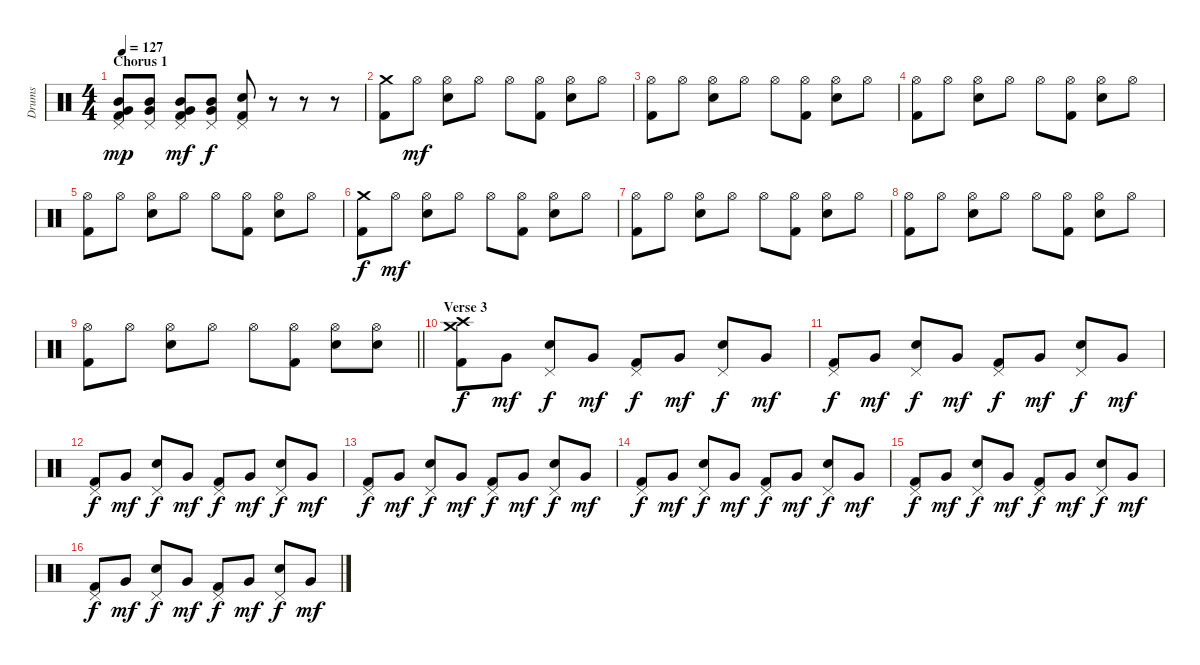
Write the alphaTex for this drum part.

\track ("Drums" "Drums") {instrument percussion}
\staff {score}
\articulation defaults
\ts (4 4)
\section ("" "Chorus 1")
\tempo 127
\clef neutral
\ks c
("Pedal Hi-Hat (hit)" "Mid Tom (hit)" "Very Low Tom (hit)" "Kick (hit) 2").8{dy mp} ("Pedal Hi-Hat (hit)" "Mid Tom (hit)" "Very Low Tom (hit)").8 ("Pedal Hi-Hat (hit)" "Mid Tom (hit)" "Very Low Tom (hit)" "Kick (hit) 2").8{dy mf} ("Pedal Hi-Hat (hit)" "Mid Tom (hit)" "Very Low Tom (hit)").8{dy f} ("Pedal Hi-Hat (hit)" "Snare (hit) 2" "Kick (hit) 2").8 r.8 r.8 r.8 |
("Crash medium (hit)" "Kick (hit) 2").8 "Hi-Hat (open)".8{dy mf} ("Hi-Hat (open)" "Snare (hit) 2").8 "Hi-Hat (open)".8 "Hi-Hat (open)".8 ("Hi-Hat (open)" "Kick (hit) 2").8 ("Hi-Hat (open)" "Snare (hit) 2").8 "Hi-Hat (open)".8 |
("Hi-Hat (open)" "Kick (hit) 2").8 "Hi-Hat (open)".8 ("Hi-Hat (open)" "Snare (hit) 2").8 "Hi-Hat (open)".8 "Hi-Hat (open)".8 ("Hi-Hat (open)" "Kick (hit) 2").8 ("Hi-Hat (open)" "Snare (hit) 2").8 "Hi-Hat (open)".8 |
("Hi-Hat (open)" "Kick (hit) 2").8 "Hi-Hat (open)".8 ("Hi-Hat (open)" "Snare (hit) 2").8 "Hi-Hat (open)".8 "Hi-Hat (open)".8 ("Hi-Hat (open)" "Kick (hit) 2").8 ("Hi-Hat (open)" "Snare (hit) 2").8 "Hi-Hat (open)".8 |
("Hi-Hat (open)" "Kick (hit) 2").8 "Hi-Hat (open)".8 ("Hi-Hat (open)" "Snare (hit) 2").8 "Hi-Hat (open)".8 "Hi-Hat (open)".8 ("Hi-Hat (open)" "Kick (hit) 2").8 ("Hi-Hat (open)" "Snare (hit) 2").8 "Hi-Hat (open)".8 |
("Crash medium (hit)" "Kick (hit) 2").8{dy f} "Hi-Hat (open)".8{dy mf} ("Hi-Hat (open)" "Snare (hit) 2").8 "Hi-Hat (open)".8 "Hi-Hat (open)".8 ("Hi-Hat (open)" "Kick (hit) 2").8 ("Hi-Hat (open)" "Snare (hit) 2").8 "Hi-Hat (open)".8 |
("Hi-Hat (open)" "Kick (hit) 2").8 "Hi-Hat (open)".8 ("Hi-Hat (open)" "Snare (hit) 2").8 "Hi-Hat (open)".8 "Hi-Hat (open)".8 ("Hi-Hat (open)" "Kick (hit) 2").8 ("Hi-Hat (open)" "Snare (hit) 2").8 "Hi-Hat (open)".8 |
("Hi-Hat (open)" "Kick (hit) 2").8 "Hi-Hat (open)".8 ("Hi-Hat (open)" "Snare (hit) 2").8 "Hi-Hat (open)".8 "Hi-Hat (open)".8 ("Hi-Hat (open)" "Kick (hit) 2").8 ("Hi-Hat (open)" "Snare (hit) 2").8 "Hi-Hat (open)".8 |
\barLineRight lightlight
("Hi-Hat (open)" "Kick (hit) 2").8 "Hi-Hat (open)".8 ("Hi-Hat (open)" "Snare (hit) 2").8 "Hi-Hat (open)".8 "Hi-Hat (open)".8 ("Hi-Hat (open)" "Kick (hit) 2").8 ("Hi-Hat (open)" "Snare (hit) 2").8 ("Hi-Hat (open)" "Snare (hit) 2").8 |
\section ("" "Verse 3")
("Crash high (hit)" "Crash medium (hit)" "Kick (hit) 2").8{dy f} "Very Low Tom (hit)".8{dy mf} ("Pedal Hi-Hat (hit)" "Electric Snare (hit)").8{dy f} "Very Low Tom (hit)".8{dy mf} ("Pedal Hi-Hat (hit)" "Kick (hit) 2").8{dy f} "Very Low Tom (hit)".8{dy mf} ("Pedal Hi-Hat (hit)" "Electric Snare (hit)").8{dy f} "Very Low Tom (hit)".8{dy mf} |
("Pedal Hi-Hat (hit)" "Kick (hit) 2").8{dy f} "Very Low Tom (hit)".8{dy mf} ("Pedal Hi-Hat (hit)" "Electric Snare (hit)").8{dy f} "Very Low Tom (hit)".8{dy mf} ("Pedal Hi-Hat (hit)" "Kick (hit) 2").8{dy f} "Very Low Tom (hit)".8{dy mf} ("Pedal Hi-Hat (hit)" "Electric Snare (hit)").8{dy f} "Very Low Tom (hit)".8{dy mf} |
("Pedal Hi-Hat (hit)" "Kick (hit) 2").8{dy f} "Very Low Tom (hit)".8{dy mf} ("Pedal Hi-Hat (hit)" "Electric Snare (hit)").8{dy f} "Very Low Tom (hit)".8{dy mf} ("Pedal Hi-Hat (hit)" "Kick (hit) 2").8{dy f} "Very Low Tom (hit)".8{dy mf} ("Pedal Hi-Hat (hit)" "Electric Snare (hit)").8{dy f} "Very Low Tom (hit)".8{dy mf} |
("Pedal Hi-Hat (hit)" "Kick (hit) 2").8{dy f} "Very Low Tom (hit)".8{dy mf} ("Pedal Hi-Hat (hit)" "Electric Snare (hit)").8{dy f} "Very Low Tom (hit)".8{dy mf} ("Pedal Hi-Hat (hit)" "Kick (hit) 2").8{dy f} "Very Low Tom (hit)".8{dy mf} ("Pedal Hi-Hat (hit)" "Electric Snare (hit)").8{dy f} "Very Low Tom (hit)".8{dy mf} |
("Pedal Hi-Hat (hit)" "Kick (hit) 2").8{dy f} "Very Low Tom (hit)".8{dy mf} ("Pedal Hi-Hat (hit)" "Electric Snare (hit)").8{dy f} "Very Low Tom (hit)".8{dy mf} ("Pedal Hi-Hat (hit)" "Kick (hit) 2").8{dy f} "Very Low Tom (hit)".8{dy mf} ("Pedal Hi-Hat (hit)" "Electric Snare (hit)").8{dy f} "Very Low Tom (hit)".8{dy mf} |
("Pedal Hi-Hat (hit)" "Kick (hit) 2").8{dy f} "Very Low Tom (hit)".8{dy mf} ("Pedal Hi-Hat (hit)" "Electric Snare (hit)").8{dy f} "Very Low Tom (hit)".8{dy mf} ("Pedal Hi-Hat (hit)" "Kick (hit) 2").8{dy f} "Very Low Tom (hit)".8{dy mf} ("Pedal Hi-Hat (hit)" "Electric Snare (hit)").8{dy f} "Very Low Tom (hit)".8{dy mf} |
("Pedal Hi-Hat (hit)" "Kick (hit) 2").8{dy f} "Very Low Tom (hit)".8{dy mf} ("Pedal Hi-Hat (hit)" "Electric Snare (hit)").8{dy f} "Very Low Tom (hit)".8{dy mf} ("Pedal Hi-Hat (hit)" "Kick (hit) 2").8{dy f} "Very Low Tom (hit)".8{dy mf} ("Pedal Hi-Hat (hit)" "Electric Snare (hit)").8{dy f} "Very Low Tom (hit)".8{dy mf}
